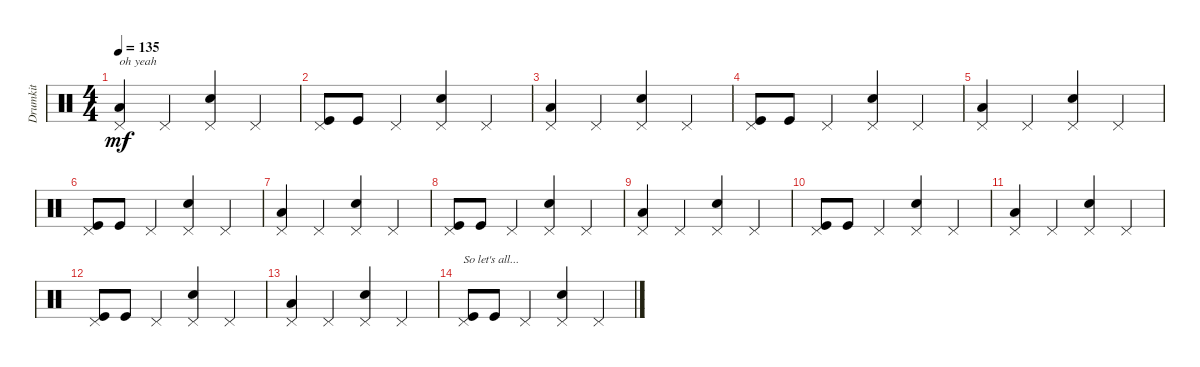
\track ("Drumkit" "Drumkit") {instrument percussion}
\staff {score}
\articulation defaults
\ts (4 4)
\tempo 135
\clef neutral
\ks c
("Pedal Hi-Hat (hit)" "Low Floor Tom (hit)").4{txt "oh yeah" dy mf} "Pedal Hi-Hat (hit)".4 ("Pedal Hi-Hat (hit)" "Snare (hit) 2").4 "Pedal Hi-Hat (hit)".4 |
("Pedal Hi-Hat (hit)" "Kick (hit)").8 "Kick (hit)".8 "Pedal Hi-Hat (hit)".4 ("Pedal Hi-Hat (hit)" "Snare (hit) 2").4 "Pedal Hi-Hat (hit)".4 |
("Pedal Hi-Hat (hit)" "Low Floor Tom (hit)").4 "Pedal Hi-Hat (hit)".4 ("Pedal Hi-Hat (hit)" "Snare (hit) 2").4 "Pedal Hi-Hat (hit)".4 |
("Pedal Hi-Hat (hit)" "Kick (hit)").8 "Kick (hit)".8 "Pedal Hi-Hat (hit)".4 ("Pedal Hi-Hat (hit)" "Snare (hit) 2").4 "Pedal Hi-Hat (hit)".4 |
("Pedal Hi-Hat (hit)" "Low Floor Tom (hit)").4 "Pedal Hi-Hat (hit)".4 ("Pedal Hi-Hat (hit)" "Snare (hit) 2").4 "Pedal Hi-Hat (hit)".4 |
("Pedal Hi-Hat (hit)" "Kick (hit)").8 "Kick (hit)".8 "Pedal Hi-Hat (hit)".4 ("Pedal Hi-Hat (hit)" "Snare (hit) 2").4 "Pedal Hi-Hat (hit)".4 |
("Pedal Hi-Hat (hit)" "Low Floor Tom (hit)").4 "Pedal Hi-Hat (hit)".4 ("Pedal Hi-Hat (hit)" "Snare (hit) 2").4 "Pedal Hi-Hat (hit)".4 |
("Pedal Hi-Hat (hit)" "Kick (hit)").8 "Kick (hit)".8 "Pedal Hi-Hat (hit)".4 ("Pedal Hi-Hat (hit)" "Snare (hit) 2").4 "Pedal Hi-Hat (hit)".4 |
("Pedal Hi-Hat (hit)" "Low Floor Tom (hit)").4 "Pedal Hi-Hat (hit)".4 ("Pedal Hi-Hat (hit)" "Snare (hit) 2").4 "Pedal Hi-Hat (hit)".4 |
("Pedal Hi-Hat (hit)" "Kick (hit)").8 "Kick (hit)".8 "Pedal Hi-Hat (hit)".4 ("Pedal Hi-Hat (hit)" "Snare (hit) 2").4 "Pedal Hi-Hat (hit)".4 |
("Pedal Hi-Hat (hit)" "Low Floor Tom (hit)").4 "Pedal Hi-Hat (hit)".4 ("Pedal Hi-Hat (hit)" "Snare (hit) 2").4 "Pedal Hi-Hat (hit)".4 |
("Pedal Hi-Hat (hit)" "Kick (hit)").8 "Kick (hit)".8 "Pedal Hi-Hat (hit)".4 ("Pedal Hi-Hat (hit)" "Snare (hit) 2").4 "Pedal Hi-Hat (hit)".4 |
("Pedal Hi-Hat (hit)" "Low Floor Tom (hit)").4 "Pedal Hi-Hat (hit)".4 ("Pedal Hi-Hat (hit)" "Snare (hit) 2").4 "Pedal Hi-Hat (hit)".4 |
("Pedal Hi-Hat (hit)" "Kick (hit)").8{txt "So let's all..."} "Kick (hit)".8 "Pedal Hi-Hat (hit)".4 ("Pedal Hi-Hat (hit)" "Snare (hit) 2").4 "Pedal Hi-Hat (hit)".4
